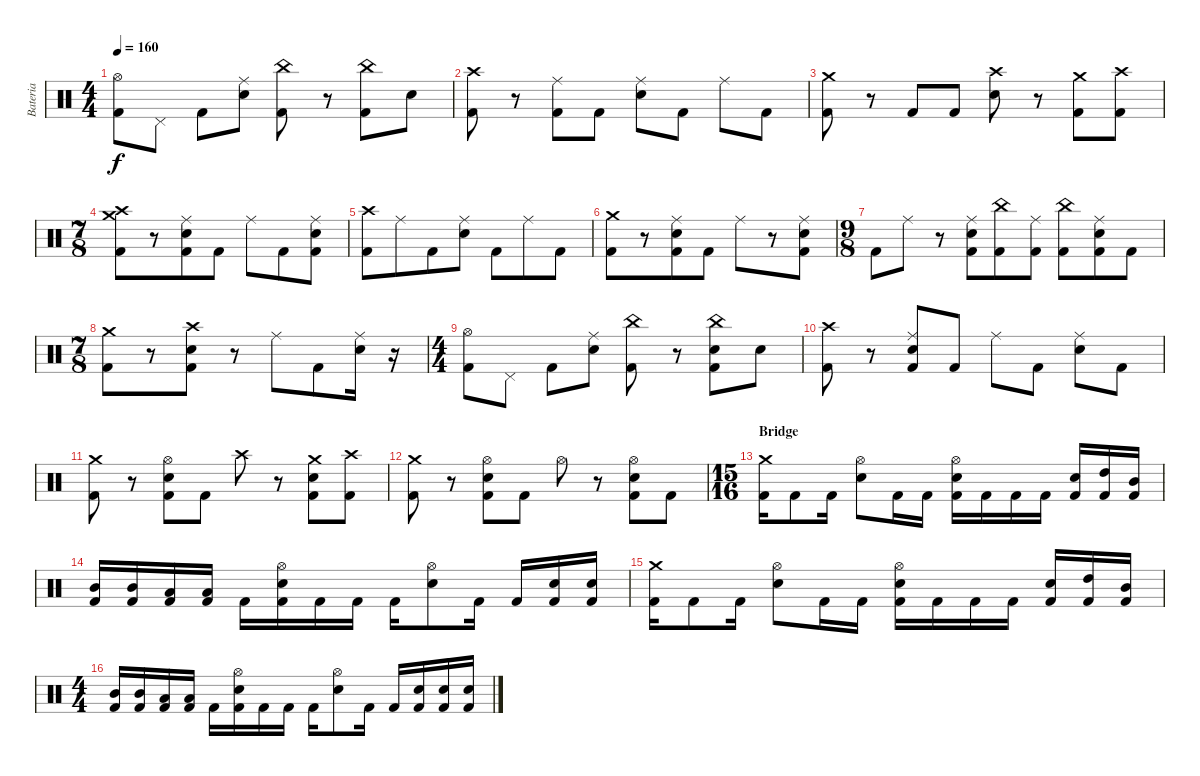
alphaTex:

\track ("Bateria" "Bateria") {instrument percussion}
\staff {score}
\articulation defaults
\ts (4 4)
\tempo 160
\clef neutral
\ks c
("Hi-Hat (open)" "Kick (hit) 2").8{dy f} "Pedal Hi-Hat (hit)".8 "Kick (hit) 2".8 ("Ride (middle)" "Electric Snare (hit)").8 ("China (hit)" "Kick (hit) 2").8 r.8 ("China (hit)" "Kick (hit) 2").8 "Electric Snare (hit)".8 |
("Crash high (hit)" "Kick (hit) 2").8 r.8 ("Ride (middle)" "Kick (hit) 2").8 "Kick (hit) 2".8 ("Ride (middle)" "Electric Snare (hit)").8 "Kick (hit) 2".8 "Ride (middle)".8 "Kick (hit) 2".8 |
("Crash medium (hit)" "Kick (hit) 2").8 r.8 "Kick (hit) 2".8 "Kick (hit) 2".8 ("Crash high (hit)" "Electric Snare (hit)").8 r.8 ("Crash medium (hit)" "Kick (hit) 2").8 ("Crash high (hit)" "Kick (hit) 2").8 |
\ts (7 8)
("Crash medium (hit)" "Crash high (hit)" "Kick (hit) 2").8 r.8 ("Ride (middle)" "Electric Snare (hit)" "Kick (hit) 2").8 "Kick (hit) 2".8 "Ride (middle)".8 "Kick (hit) 2".8 ("Ride (middle)" "Electric Snare (hit)" "Kick (hit) 2").8 |
("Crash high (hit)" "Kick (hit) 2").8 "Ride (middle)".8 "Kick (hit) 2".8 ("Ride (middle)" "Electric Snare (hit)").8 "Kick (hit) 2".8 "Ride (middle)".8 "Kick (hit) 2".8 |
("Crash medium (hit)" "Kick (hit) 2").8 r.8 ("Ride (middle)" "Electric Snare (hit)" "Kick (hit) 2").8 "Kick (hit) 2".8 "Ride (middle)".8 r.8 ("Ride (middle)" "Electric Snare (hit)" "Kick (hit) 2").8 |
\ts (9 8)
"Kick (hit) 2".8 "Ride (middle)".8 r.8 ("Ride (middle)" "Electric Snare (hit)" "Kick (hit) 2").8 ("China (hit)" "Kick (hit) 2").8 ("Ride (middle)" "Kick (hit) 2").8 ("China (hit)" "Kick (hit) 2").8 ("Ride (middle)" "Electric Snare (hit)" "Kick (hit) 2").8 "Kick (hit) 2".8 |
\ts (7 8)
("Crash medium (hit)" "Kick (hit) 2").8 r.8 ("Crash high (hit)" "Electric Snare (hit)" "Kick (hit) 2").8 r.8 "Ride (middle)".8 "Kick (hit) 2".8 ("Ride (middle)" "Electric Snare (hit)").16 r.16 |
\ts (4 4)
("Hi-Hat (open)" "Kick (hit) 2").8 "Pedal Hi-Hat (hit)".8 "Kick (hit) 2".8 ("Ride (middle)" "Electric Snare (hit)").8 ("China (hit)" "Kick (hit) 2").8 r.8 ("China (hit)" "Electric Snare (hit)" "Kick (hit) 2").8 "Electric Snare (hit)".8 |
("Crash high (hit)" "Kick (hit) 2").8 r.8 ("Ride (middle)" "Electric Snare (hit)" "Kick (hit) 2").8 "Kick (hit) 2".8 "Ride (middle)".8 "Kick (hit) 2".8 ("Ride (middle)" "Electric Snare (hit)").8 "Kick (hit) 2".8 |
("Crash medium (hit)" "Kick (hit) 2").8 r.8 ("Hi-Hat (open)" "Electric Snare (hit)" "Kick (hit) 2").8 "Kick (hit) 2".8 "Crash high (hit)".8 r.8 ("Crash medium (hit)" "Electric Snare (hit)" "Kick (hit) 2").8 ("Crash high (hit)" "Kick (hit) 2").8 |
("Crash medium (hit)" "Kick (hit) 2").8 r.8 ("Hi-Hat (open)" "Electric Snare (hit)" "Kick (hit) 2").8 "Kick (hit) 2".8 "Hi-Hat (open)".8 r.8 ("Hi-Hat (open)" "Electric Snare (hit)" "Kick (hit) 2").8 "Kick (hit) 2".8 |
\ts (15 16)
\section ("" "Bridge")
("Crash medium (hit)" "Kick (hit) 2").16 "Kick (hit) 2".8 "Kick (hit) 2".16 ("Hi-Hat (open)" "Electric Snare (hit)").8 "Kick (hit) 2".16 "Kick (hit) 2".16 ("Hi-Hat (open)" "Electric Snare (hit)" "Kick (hit) 2").16 "Kick (hit) 2".16 "Kick (hit) 2".16 "Kick (hit) 2".16 ("Electric Snare (hit)" "Kick (hit) 2").16 ("High Tom (hit)" "Kick (hit) 2").16 ("Mid Tom (hit)" "Kick (hit) 2").16 |
("Mid Tom (hit)" "Kick (hit) 2").16 ("Mid Tom (hit)" "Kick (hit) 2").16 ("Low Tom (hit)" "Kick (hit) 2").16 ("Low Tom (hit)" "Kick (hit) 2").16 "Kick (hit) 2".16 ("Hi-Hat (open)" "Electric Snare (hit)" "Kick (hit) 2").16 "Kick (hit) 2".16 "Kick (hit) 2".16 "Kick (hit) 2".16 ("Hi-Hat (open)" "Electric Snare (hit)").8 "Kick (hit) 2".16 "Kick (hit) 2".16 ("Electric Snare (hit)" "Kick (hit) 2").16 ("Electric Snare (hit)" "Kick (hit) 2").16 |
("Crash medium (hit)" "Kick (hit) 2").16 "Kick (hit) 2".8 "Kick (hit) 2".16 ("Hi-Hat (open)" "Electric Snare (hit)").8 "Kick (hit) 2".16 "Kick (hit) 2".16 ("Hi-Hat (open)" "Electric Snare (hit)" "Kick (hit) 2").16 "Kick (hit) 2".16 "Kick (hit) 2".16 "Kick (hit) 2".16 ("Electric Snare (hit)" "Kick (hit) 2").16 ("High Tom (hit)" "Kick (hit) 2").16 ("Mid Tom (hit)" "Kick (hit) 2").16 |
\ts (4 4)
("Mid Tom (hit)" "Kick (hit) 2").16 ("Mid Tom (hit)" "Kick (hit) 2").16 ("Low Tom (hit)" "Kick (hit) 2").16 ("Low Tom (hit)" "Kick (hit) 2").16 "Kick (hit) 2".16 ("Hi-Hat (open)" "Electric Snare (hit)" "Kick (hit) 2").16 "Kick (hit) 2".16 "Kick (hit) 2".16 "Kick (hit) 2".16 ("Hi-Hat (open)" "Electric Snare (hit)").8 "Kick (hit) 2".16 "Kick (hit) 2".16 ("Electric Snare (hit)" "Kick (hit) 2").16 ("Electric Snare (hit)" "Kick (hit) 2").16 ("Electric Snare (hit)" "Kick (hit) 2").16
